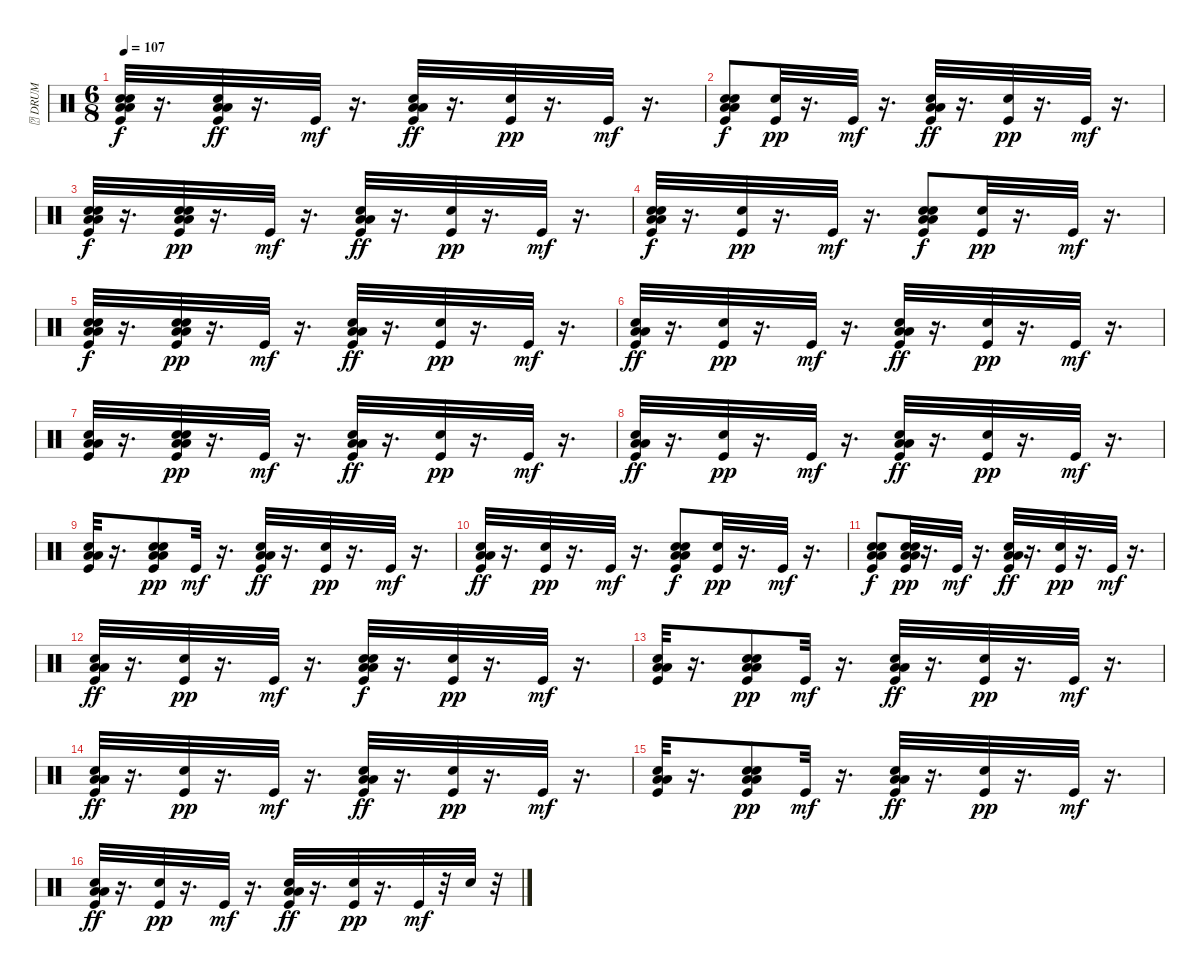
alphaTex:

\track ("\t DRUM" "\t DRUM") {instrument percussion}
\staff {score}
\articulation defaults
\ts (6 8)
\tempo 107
\clef neutral
\ks c
("Kick (hit)" "Hand Clap (hit)" "Low Floor Tom (hit)" "Low Tom (hit)" "Hand Clap (hit)").32{dy f} r.16{d} ("Kick (hit)" "Hand Clap (hit)" "Low Floor Tom (hit)" "Low Tom (hit)").32{dy ff} r.16{d} "Kick (hit)".32{dy mf} r.16{d} ("Kick (hit)" "Hand Clap (hit)" "Low Floor Tom (hit)" "Low Tom (hit)").32{dy ff} r.16{d} ("Kick (hit)" "Hand Clap (hit)").32{dy pp} r.16{d} "Kick (hit)".32{dy mf} r.16{d} |
("Kick (hit)" "Hand Clap (hit)" "Low Floor Tom (hit)" "Low Tom (hit)" "Hand Clap (hit)").8{dy f} ("Kick (hit)" "Hand Clap (hit)").32{dy pp} r.16{d} "Kick (hit)".32{dy mf} r.16{d} ("Kick (hit)" "Hand Clap (hit)" "Low Floor Tom (hit)" "Low Tom (hit)").32{dy ff} r.16{d} ("Kick (hit)" "Hand Clap (hit)").32{dy pp} r.16{d} "Kick (hit)".32{dy mf} r.16{d} |
("Kick (hit)" "Hand Clap (hit)" "Low Floor Tom (hit)" "Low Tom (hit)" "Hand Clap (hit)").32{dy f} r.16{d} ("Kick (hit)" "Hand Clap (hit)" "Low Floor Tom (hit)" "Low Tom (hit)" "Hand Clap (hit)").32{dy pp} r.16{d} "Kick (hit)".32{dy mf} r.16{d} ("Kick (hit)" "Hand Clap (hit)" "Low Floor Tom (hit)" "Low Tom (hit)").32{dy ff} r.16{d} ("Kick (hit)" "Hand Clap (hit)").32{dy pp} r.16{d} "Kick (hit)".32{dy mf} r.16{d} |
("Kick (hit)" "Hand Clap (hit)" "Low Floor Tom (hit)" "Low Tom (hit)" "Hand Clap (hit)").32{dy f} r.16{d} ("Kick (hit)" "Hand Clap (hit)").32{dy pp} r.16{d} "Kick (hit)".32{dy mf} r.16{d} ("Kick (hit)" "Hand Clap (hit)" "Low Floor Tom (hit)" "Low Tom (hit)" "Hand Clap (hit)").8{dy f} ("Kick (hit)" "Hand Clap (hit)").32{dy pp} r.16{d} "Kick (hit)".32{dy mf} r.16{d} |
("Kick (hit)" "Hand Clap (hit)" "Low Floor Tom (hit)" "Low Tom (hit)" "Hand Clap (hit)").32{dy f} r.16{d} ("Kick (hit)" "Hand Clap (hit)" "Low Floor Tom (hit)" "Low Tom (hit)" "Hand Clap (hit)").32{dy pp} r.16{d} "Kick (hit)".32{dy mf} r.16{d} ("Kick (hit)" "Hand Clap (hit)" "Low Floor Tom (hit)" "Low Tom (hit)").32{dy ff} r.16{d} ("Kick (hit)" "Hand Clap (hit)").32{dy pp} r.16{d} "Kick (hit)".32{dy mf} r.16{d} |
("Kick (hit)" "Hand Clap (hit)" "Low Floor Tom (hit)" "Low Tom (hit)").32{dy ff} r.16{d} ("Kick (hit)" "Hand Clap (hit)").32{dy pp} r.16{d} "Kick (hit)".32{dy mf} r.16{d} ("Kick (hit)" "Hand Clap (hit)" "Low Floor Tom (hit)" "Low Tom (hit)").32{dy ff} r.16{d} ("Kick (hit)" "Hand Clap (hit)").32{dy pp} r.16{d} "Kick (hit)".32{dy mf} r.16{d} |
("Kick (hit)" "Hand Clap (hit)" "Low Floor Tom (hit)" "Low Tom (hit)").32 r.16{d} ("Kick (hit)" "Hand Clap (hit)" "Low Floor Tom (hit)" "Low Tom (hit)" "Hand Clap (hit)").32{dy pp} r.16{d} "Kick (hit)".32{dy mf} r.16{d} ("Kick (hit)" "Hand Clap (hit)" "Low Floor Tom (hit)" "Low Tom (hit)").32{dy ff} r.16{d} ("Kick (hit)" "Hand Clap (hit)").32{dy pp} r.16{d} "Kick (hit)".32{dy mf} r.16{d} |
("Kick (hit)" "Hand Clap (hit)" "Low Floor Tom (hit)" "Low Tom (hit)").32{dy ff} r.16{d} ("Kick (hit)" "Hand Clap (hit)").32{dy pp} r.16{d} "Kick (hit)".32{dy mf} r.16{d} ("Kick (hit)" "Hand Clap (hit)" "Low Floor Tom (hit)" "Low Tom (hit)").32{dy ff} r.16{d} ("Kick (hit)" "Hand Clap (hit)").32{dy pp} r.16{d} "Kick (hit)".32{dy mf} r.16{d} |
("Kick (hit)" "Hand Clap (hit)" "Low Floor Tom (hit)" "Low Tom (hit)").32 r.16{d} ("Kick (hit)" "Hand Clap (hit)" "Low Floor Tom (hit)" "Low Tom (hit)" "Hand Clap (hit)").8{dy pp} "Kick (hit)".32{dy mf} r.16{d} ("Kick (hit)" "Hand Clap (hit)" "Low Floor Tom (hit)" "Low Tom (hit)").32{dy ff} r.16{d} ("Kick (hit)" "Hand Clap (hit)").32{dy pp} r.16{d} "Kick (hit)".32{dy mf} r.16{d} |
("Kick (hit)" "Hand Clap (hit)" "Low Floor Tom (hit)" "Low Tom (hit)").32{dy ff} r.16{d} ("Kick (hit)" "Hand Clap (hit)").32{dy pp} r.16{d} "Kick (hit)".32{dy mf} r.16{d} ("Kick (hit)" "Hand Clap (hit)" "Low Floor Tom (hit)" "Low Tom (hit)" "Hand Clap (hit)").8{dy f} ("Kick (hit)" "Hand Clap (hit)").32{dy pp} r.16{d} "Kick (hit)".32{dy mf} r.16{d} |
("Kick (hit)" "Hand Clap (hit)" "Low Floor Tom (hit)" "Low Tom (hit)" "Hand Clap (hit)").8{dy f} ("Kick (hit)" "Hand Clap (hit)" "Low Floor Tom (hit)" "Low Tom (hit)" "Hand Clap (hit)").32{dy pp} r.16{d} "Kick (hit)".32{dy mf} r.16{d} ("Kick (hit)" "Hand Clap (hit)" "Low Floor Tom (hit)" "Low Tom (hit)").32{dy ff} r.16{d} ("Kick (hit)" "Hand Clap (hit)").32{dy pp} r.16{d} "Kick (hit)".32{dy mf} r.16{d} |
("Kick (hit)" "Hand Clap (hit)" "Low Floor Tom (hit)" "Low Tom (hit)").32{dy ff} r.16{d} ("Kick (hit)" "Hand Clap (hit)").32{dy pp} r.16{d} "Kick (hit)".32{dy mf} r.16{d} ("Kick (hit)" "Hand Clap (hit)" "Low Floor Tom (hit)" "Low Tom (hit)" "Hand Clap (hit)").32{dy f} r.16{d} ("Kick (hit)" "Hand Clap (hit)").32{dy pp} r.16{d} "Kick (hit)".32{dy mf} r.16{d} |
("Kick (hit)" "Hand Clap (hit)" "Low Floor Tom (hit)" "Low Tom (hit)").32 r.16{d} ("Kick (hit)" "Hand Clap (hit)" "Low Floor Tom (hit)" "Low Tom (hit)" "Hand Clap (hit)").8{dy pp} "Kick (hit)".32{dy mf} r.16{d} ("Kick (hit)" "Hand Clap (hit)" "Low Floor Tom (hit)" "Low Tom (hit)").32{dy ff} r.16{d} ("Kick (hit)" "Hand Clap (hit)").32{dy pp} r.16{d} "Kick (hit)".32{dy mf} r.16{d} |
("Kick (hit)" "Hand Clap (hit)" "Low Floor Tom (hit)" "Low Tom (hit)").32{dy ff} r.16{d} ("Kick (hit)" "Hand Clap (hit)").32{dy pp} r.16{d} "Kick (hit)".32{dy mf} r.16{d} ("Kick (hit)" "Hand Clap (hit)" "Low Floor Tom (hit)" "Low Tom (hit)").32{dy ff} r.16{d} ("Kick (hit)" "Hand Clap (hit)").32{dy pp} r.16{d} "Kick (hit)".32{dy mf} r.16{d} |
("Kick (hit)" "Hand Clap (hit)" "Low Floor Tom (hit)" "Low Tom (hit)").32 r.16{d} ("Kick (hit)" "Hand Clap (hit)" "Low Floor Tom (hit)" "Low Tom (hit)" "Hand Clap (hit)").8{dy pp} "Kick (hit)".32{dy mf} r.16{d} ("Kick (hit)" "Hand Clap (hit)" "Low Floor Tom (hit)" "Low Tom (hit)").32{dy ff} r.16{d} ("Kick (hit)" "Hand Clap (hit)").32{dy pp} r.16{d} "Kick (hit)".32{dy mf} r.16{d} |
("Kick (hit)" "Hand Clap (hit)" "Low Floor Tom (hit)" "Low Tom (hit)").32{dy ff} r.16{d} ("Kick (hit)" "Hand Clap (hit)").32{dy pp} r.16{d} "Kick (hit)".32{dy mf} r.16{d} ("Kick (hit)" "Hand Clap (hit)" "Low Floor Tom (hit)" "Low Tom (hit)").32{dy ff} r.16{d} ("Kick (hit)" "Hand Clap (hit)").32{dy pp} r.16{d} "Kick (hit)".32{dy mf} r.32 "Electric Snare (hit)".32 r.32
